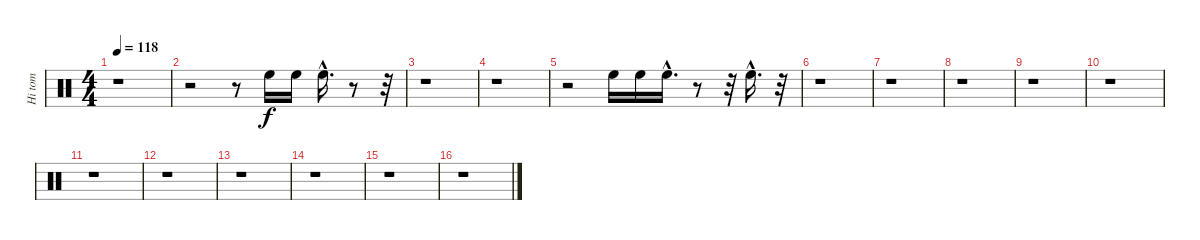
\track ("Hi tom              " "Hi tom    ") {instrument percussion}
\staff {score}
\articulation defaults
\ts (4 4)
\tempo 118
\clef neutral
\ks c
r.1{dy f} |
r.2 r.8 "High Floor Tom (hit)".16 "High Floor Tom (hit)".16 "High Floor Tom (hit)"{hac}.16{d} r.8 r.32 |
r.1 |
r.1 |
r.2 "High Floor Tom (hit)".16 "High Floor Tom (hit)".16 "High Floor Tom (hit)"{hac}.16{d} r.8 r.32 "High Floor Tom (hit)"{hac}.16{d} r.32 |
r.1 |
r.1 |
r.1 |
r.1 |
r.1 |
r.1 |
r.1 |
r.1 |
r.1 |
r.1 |
r.1
